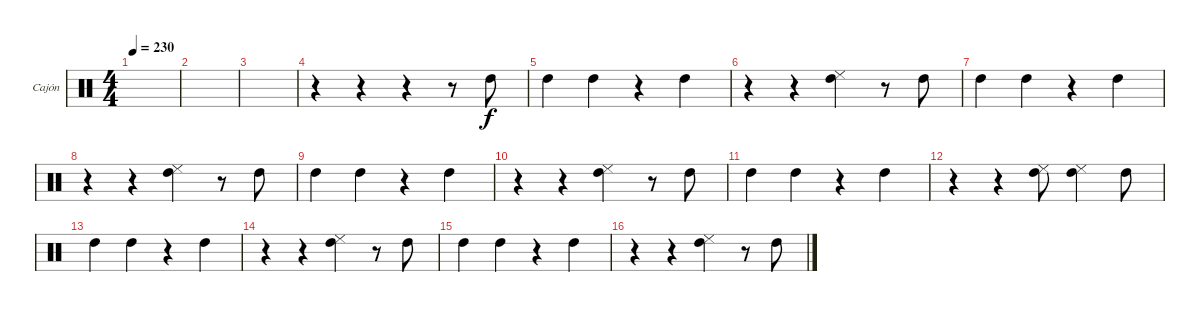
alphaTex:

\defaultSystemsLayout 4
\bracketExtendMode groupsimilarinstruments
\firstSystemTrackNameOrientation horizontal
\otherSystemsTrackNameOrientation horizontal
\track ("Cajón (Ira)" "Cajón") {instrument percussion}
\staff {score}
\articulation defaults
\ts (4 4)
\tempo 230
\clef neutral
\scale
0.333333
\ks c
|
\scale
0.333333 |
\scale
0.333333 |
\scale
0.333333 r.4 r.4 r.4 r.8 "High Tom (hit)".8 |
\scale
0.333333 "High Tom (hit)".4 "High Tom (hit)".4 r.4 "High Tom (hit)".4 |
\scale
0.333333 r.4 r.4 ("Cowbell low (tip)" "High Tom (hit)").4 r.8 "High Tom (hit)".8 |
\scale
0.333333 "High Tom (hit)".4 "High Tom (hit)".4 r.4 "High Tom (hit)".4 |
\scale
0.333333 r.4 r.4 ("High Tom (hit)" "Cowbell low (tip)").4 r.8 "High Tom (hit)".8 |
\scale
0.333333 "High Tom (hit)".4 "High Tom (hit)".4 r.4 "High Tom (hit)".4 |
\scale
0.333333 r.4 r.4 ("Cowbell low (tip)" "High Tom (hit)").4 r.8 "High Tom (hit)".8 |
\scale
0.333333 "High Tom (hit)".4 "High Tom (hit)".4 r.4 "High Tom (hit)".4 |
\scale
0.333333 r.4 r.4 ("High Tom (hit)" "Cowbell low (tip)").8 ("High Tom (hit)" "Cowbell low (tip)").4 "High Tom (hit)".8 |
\scale
0.333333 "High Tom (hit)".4 "High Tom (hit)".4 r.4 "High Tom (hit)".4 |
\scale
0.333333 r.4 r.4 ("Cowbell low (tip)" "High Tom (hit)").4 r.8 "High Tom (hit)".8 |
\scale
0.333333 "High Tom (hit)".4 "High Tom (hit)".4 r.4 "High Tom (hit)".4 |
\scale
0.333333 r.4 r.4 ("High Tom (hit)" "Cowbell low (tip)").4 r.8 "High Tom (hit)".8
